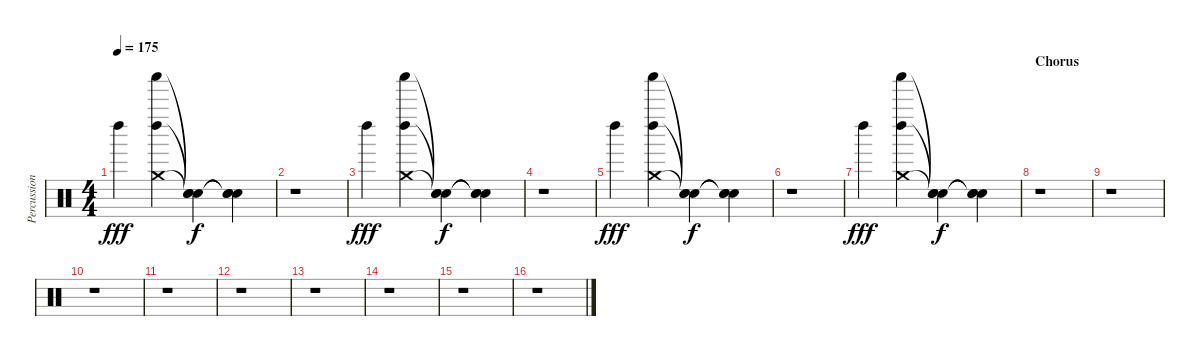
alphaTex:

\track ("Percussion" "Percussion") {instrument percussion}
\staff {score}
\articulation defaults
\ts (4 4)
\tempo 175
\clef neutral
\ks c "Left Maraca (hit)".4{dy fff volume 16 balance 1}
("Crash medium (hit)" "Shaker (hit)" "Left Maraca (hit)").4 ("Snare (hit)"{t} "Snare (hit)"{t} "Snare (hit)"{t}).4{dy f} ("Snare (hit)"{t} "Snare (hit)"{t} "Snare (hit)"{t}).4 |
r.1 |
"Left Maraca (hit)".4{dy fff volume 16 balance 1} ("Crash medium (hit)" "Shaker (hit)" "Left Maraca (hit)").4 ("Snare (hit)"{t} "Snare (hit)"{t} "Snare (hit)"{t}).4{dy f} ("Snare (hit)"{t} "Snare (hit)"{t} "Snare (hit)"{t}).4 |
r.1 |
"Left Maraca (hit)".4{dy fff volume 16 balance 1} ("Crash medium (hit)" "Shaker (hit)" "Left Maraca (hit)").4 ("Snare (hit)"{t} "Snare (hit)"{t} "Snare (hit)"{t}).4{dy f} ("Snare (hit)"{t} "Snare (hit)"{t} "Snare (hit)"{t}).4 |
r.1 |
"Left Maraca (hit)".4{dy fff volume 16 balance 1} ("Crash medium (hit)" "Shaker (hit)" "Left Maraca (hit)").4 ("Snare (hit)"{t} "Snare (hit)"{t} "Snare (hit)"{t}).4{dy f} ("Snare (hit)"{t} "Snare (hit)"{t} "Snare (hit)"{t}).4 |
\section ("" "Chorus")
r.1 |
r.1 |
r.1 |
r.1 |
r.1 |
r.1 |
r.1 |
r.1 |
r.1
